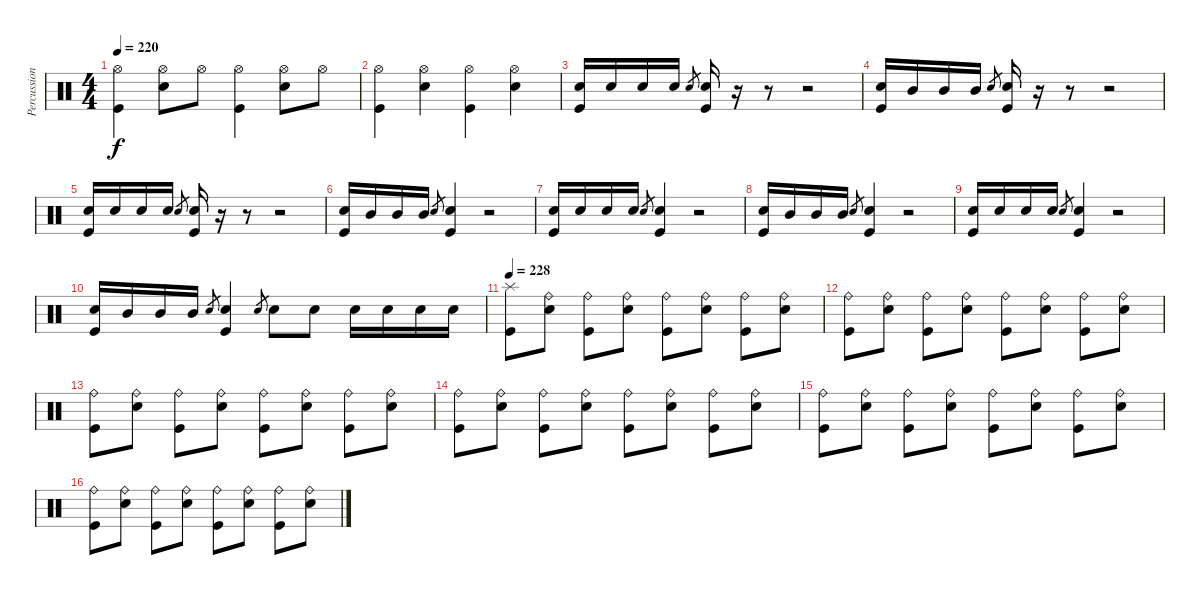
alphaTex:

\track ("Percussions" "Percussion") {instrument percussion}
\staff {score}
\articulation defaults
\ts (4 4)
\tempo 220
\clef neutral
\ks c
("Kick (hit)" "Hi-Hat (open)").4{dy f} ("Electric Snare (hit)" "Hi-Hat (open)").8 "Hi-Hat (open)".8 ("Kick (hit)" "Hi-Hat (open)").4 ("Electric Snare (hit)" "Hi-Hat (open)").8 "Hi-Hat (open)".8 |
("Kick (hit)" "Hi-Hat (open)").4 ("Electric Snare (hit)" "Hi-Hat (open)").4 ("Kick (hit)" "Hi-Hat (open)").4 ("Electric Snare (hit)" "Hi-Hat (open)").4 |
("Kick (hit)" "Electric Snare (hit)").16 "Electric Snare (hit)".16 "Electric Snare (hit)".16 "Electric Snare (hit)".16 "Electric Snare (hit)".8{gr} ("Kick (hit)" "Electric Snare (hit)").16 r.16 r.8 r.2 |
("Kick (hit)" "Electric Snare (hit)").16 "Mid Tom (hit)".16 "Mid Tom (hit)".16 "Mid Tom (hit)".16 "Electric Snare (hit)".8{gr} ("Kick (hit)" "Electric Snare (hit)").16 r.16 r.8 r.2 |
("Kick (hit)" "Electric Snare (hit)").16 "Electric Snare (hit)".16 "Electric Snare (hit)".16 "Electric Snare (hit)".16 "Electric Snare (hit)".8{gr} ("Kick (hit)" "Electric Snare (hit)").16 r.16 r.8 r.2 |
("Kick (hit)" "Electric Snare (hit)").16 "Mid Tom (hit)".16 "Mid Tom (hit)".16 "Mid Tom (hit)".16 "Electric Snare (hit)".8{gr} ("Kick (hit)" "Electric Snare (hit)").4 r.2 |
("Kick (hit)" "Electric Snare (hit)").16 "Electric Snare (hit)".16 "Electric Snare (hit)".16 "Electric Snare (hit)".16 "Electric Snare (hit)".8{gr} ("Kick (hit)" "Electric Snare (hit)").4 r.2 |
("Kick (hit)" "Electric Snare (hit)").16 "Mid Tom (hit)".16 "Mid Tom (hit)".16 "Mid Tom (hit)".16 "Electric Snare (hit)".8{gr} ("Kick (hit)" "Electric Snare (hit)").4 r.2 |
("Kick (hit)" "Electric Snare (hit)").16 "Electric Snare (hit)".16 "Electric Snare (hit)".16 "Electric Snare (hit)".16 "Electric Snare (hit)".8{gr} ("Kick (hit)" "Electric Snare (hit)").4 r.2 |
("Kick (hit)" "Electric Snare (hit)").16 "Mid Tom (hit)".16 "Mid Tom (hit)".16 "Mid Tom (hit)".16 "Electric Snare (hit)".8{gr} ("Kick (hit)" "Electric Snare (hit)").4 "Electric Snare (hit)".8{gr} "Electric Snare (hit)".8 "Electric Snare (hit)".8 "Electric Snare (hit)".16 "Electric Snare (hit)".16 "Electric Snare (hit)".16 "Electric Snare (hit)".16 |
\tempo 228
("Kick (hit)" "Splash (hit)").8 ("Electric Snare (hit)" "Ride (bell)").8 ("Kick (hit)" "Ride (bell)").8 ("Electric Snare (hit)" "Ride (bell)").8 ("Kick (hit)" "Ride (bell)").8 ("Electric Snare (hit)" "Ride (bell)").8 ("Kick (hit)" "Ride (bell)").8 ("Electric Snare (hit)" "Ride (bell)").8 |
("Kick (hit)" "Ride (bell)").8 ("Electric Snare (hit)" "Ride (bell)").8 ("Kick (hit)" "Ride (bell)").8 ("Electric Snare (hit)" "Ride (bell)").8 ("Kick (hit)" "Ride (bell)").8 ("Electric Snare (hit)" "Ride (bell)").8 ("Kick (hit)" "Ride (bell)").8 ("Electric Snare (hit)" "Ride (bell)").8 |
("Kick (hit)" "Ride (bell)").8 ("Electric Snare (hit)" "Ride (bell)").8 ("Kick (hit)" "Ride (bell)").8 ("Electric Snare (hit)" "Ride (bell)").8 ("Kick (hit)" "Ride (bell)").8 ("Electric Snare (hit)" "Ride (bell)").8 ("Kick (hit)" "Ride (bell)").8 ("Electric Snare (hit)" "Ride (bell)").8 |
("Kick (hit)" "Ride (bell)").8 ("Electric Snare (hit)" "Ride (bell)").8 ("Kick (hit)" "Ride (bell)").8 ("Electric Snare (hit)" "Ride (bell)").8 ("Kick (hit)" "Ride (bell)").8 ("Electric Snare (hit)" "Ride (bell)").8 ("Kick (hit)" "Ride (bell)").8 ("Electric Snare (hit)" "Ride (bell)").8 |
("Kick (hit)" "Ride (bell)").8 ("Electric Snare (hit)" "Ride (bell)").8 ("Kick (hit)" "Ride (bell)").8 ("Electric Snare (hit)" "Ride (bell)").8 ("Kick (hit)" "Ride (bell)").8 ("Electric Snare (hit)" "Ride (bell)").8 ("Kick (hit)" "Ride (bell)").8 ("Electric Snare (hit)" "Ride (bell)").8 |
("Kick (hit)" "Ride (bell)").8 ("Electric Snare (hit)" "Ride (bell)").8 ("Kick (hit)" "Ride (bell)").8 ("Electric Snare (hit)" "Ride (bell)").8 ("Kick (hit)" "Ride (bell)").8 ("Electric Snare (hit)" "Ride (bell)").8 ("Kick (hit)" "Ride (bell)").8 ("Electric Snare (hit)" "Ride (bell)").8
